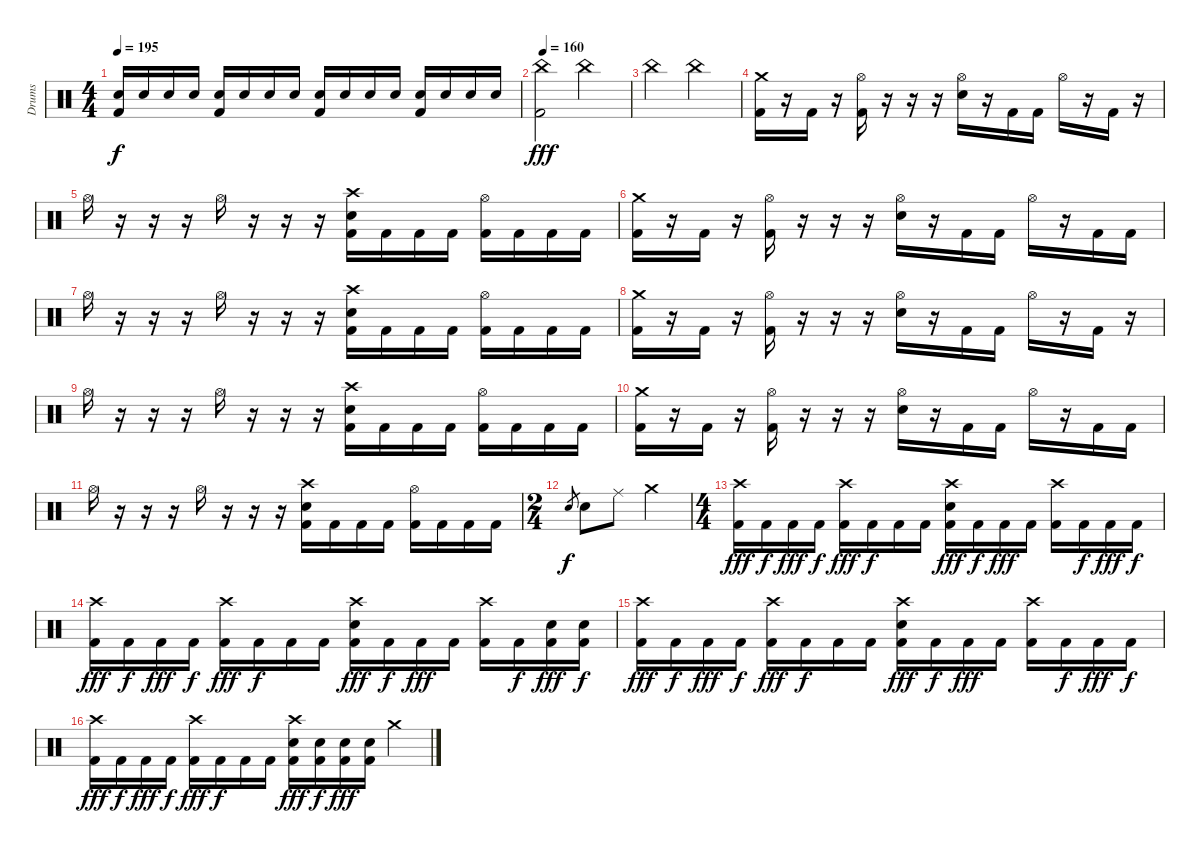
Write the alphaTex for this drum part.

\track ("Drums" "Drums") {instrument percussion}
\staff {score}
\articulation defaults
\ts (4 4)
\tempo 195
\clef neutral
\ks c
("Electric Snare (hit)" "Kick (hit) 2").16{dy f} "Electric Snare (hit)".16 "Electric Snare (hit)".16 "Electric Snare (hit)".16 ("Electric Snare (hit)" "Kick (hit) 2").16 "Electric Snare (hit)".16 "Electric Snare (hit)".16 "Electric Snare (hit)".16 ("Electric Snare (hit)" "Kick (hit) 2").16 "Electric Snare (hit)".16 "Electric Snare (hit)".16 "Electric Snare (hit)".16 ("Electric Snare (hit)" "Kick (hit) 2").16 "Electric Snare (hit)".16 "Electric Snare (hit)".16 "Electric Snare (hit)".16 |
\tempo 160
("China (hit)" "Kick (hit) 2").2{dy fff} "China (hit)".2 |
"China (hit)".2 "China (hit)".2 |
("Crash medium (hit)" "Kick (hit) 2").16 r.16 "Kick (hit) 2".16 r.16 ("Hi-Hat (open)" "Kick (hit) 2").16 r.16 r.16 r.16 ("Hi-Hat (open)" "Electric Snare (hit)").16 r.16 "Kick (hit) 2".16 "Kick (hit) 2".16 "Hi-Hat (open)".16 r.16 "Kick (hit) 2".16 r.16 |
"Hi-Hat (open)".16 r.16 r.16 r.16 "Hi-Hat (open)".16 r.16 r.16 r.16 ("Crash high (hit)" "Electric Snare (hit)" "Kick (hit) 2").16 "Kick (hit) 2".16 "Kick (hit) 2".16 "Kick (hit) 2".16 ("Hi-Hat (open)" "Kick (hit) 2").16 "Kick (hit) 2".16 "Kick (hit) 2".16 "Kick (hit) 2".16 |
("Crash medium (hit)" "Kick (hit) 2").16 r.16 "Kick (hit) 2".16 r.16 ("Hi-Hat (open)" "Kick (hit) 2").16 r.16 r.16 r.16 ("Hi-Hat (open)" "Electric Snare (hit)").16 r.16 "Kick (hit) 2".16 "Kick (hit) 2".16 "Hi-Hat (open)".16 r.16 "Kick (hit) 2".16 "Kick (hit) 2".16 |
"Hi-Hat (open)".16 r.16 r.16 r.16 "Hi-Hat (open)".16 r.16 r.16 r.16 ("Crash high (hit)" "Electric Snare (hit)" "Kick (hit) 2").16 "Kick (hit) 2".16 "Kick (hit) 2".16 "Kick (hit) 2".16 ("Hi-Hat (open)" "Kick (hit) 2").16 "Kick (hit) 2".16 "Kick (hit) 2".16 "Kick (hit) 2".16 |
("Crash medium (hit)" "Kick (hit) 2").16 r.16 "Kick (hit) 2".16 r.16 ("Hi-Hat (open)" "Kick (hit) 2").16 r.16 r.16 r.16 ("Hi-Hat (open)" "Electric Snare (hit)").16 r.16 "Kick (hit) 2".16 "Kick (hit) 2".16 "Hi-Hat (open)".16 r.16 "Kick (hit) 2".16 r.16 |
"Hi-Hat (open)".16 r.16 r.16 r.16 "Hi-Hat (open)".16 r.16 r.16 r.16 ("Crash high (hit)" "Electric Snare (hit)" "Kick (hit) 2").16 "Kick (hit) 2".16 "Kick (hit) 2".16 "Kick (hit) 2".16 ("Hi-Hat (open)" "Kick (hit) 2").16 "Kick (hit) 2".16 "Kick (hit) 2".16 "Kick (hit) 2".16 |
("Crash medium (hit)" "Kick (hit) 2").16 r.16 "Kick (hit) 2".16 r.16 ("Hi-Hat (open)" "Kick (hit) 2").16 r.16 r.16 r.16 ("Hi-Hat (open)" "Electric Snare (hit)").16 r.16 "Kick (hit) 2".16 "Kick (hit) 2".16 "Hi-Hat (open)".16 r.16 "Kick (hit) 2".16 "Kick (hit) 2".16 |
"Hi-Hat (open)".16 r.16 r.16 r.16 "Hi-Hat (open)".16 r.16 r.16 r.16 ("Crash high (hit)" "Electric Snare (hit)" "Kick (hit) 2").16 "Kick (hit) 2".16 "Kick (hit) 2".16 "Kick (hit) 2".16 ("Hi-Hat (open)" "Kick (hit) 2").16 "Kick (hit) 2".16 "Kick (hit) 2".16 "Kick (hit) 2".16 |
\ts (2 4)
"Electric Snare (hit)".8{gr dy f} "Electric Snare (hit)".8 "Ride (middle)".8 "Crash medium (hit)".4 |
\ts (4 4)
("Crash high (hit)" "Kick (hit) 2").16{dy fff} "Kick (hit) 2".16{dy f} "Kick (hit) 2".16{dy fff} "Kick (hit) 2".16{dy f} ("Crash high (hit)" "Kick (hit) 2").16{dy fff} "Kick (hit) 2".16{dy f} "Kick (hit) 2".16 "Kick (hit) 2".16 ("Crash high (hit)" "Electric Snare (hit)" "Kick (hit) 2").16{dy fff} "Kick (hit) 2".16{dy f} "Kick (hit) 2".16{dy fff} "Kick (hit) 2".16 ("Crash high (hit)" "Kick (hit) 2").16 "Kick (hit) 2".16{dy f} "Kick (hit) 2".16{dy fff} "Kick (hit) 2".16{dy f} |
("Crash high (hit)" "Kick (hit) 2").16{dy fff} "Kick (hit) 2".16{dy f} "Kick (hit) 2".16{dy fff} "Kick (hit) 2".16{dy f} ("Crash high (hit)" "Kick (hit) 2").16{dy fff} "Kick (hit) 2".16{dy f} "Kick (hit) 2".16 "Kick (hit) 2".16 ("Crash high (hit)" "Electric Snare (hit)" "Kick (hit) 2").16{dy fff} "Kick (hit) 2".16{dy f} "Kick (hit) 2".16{dy fff} "Kick (hit) 2".16 ("Crash high (hit)" "Kick (hit) 2").16 "Kick (hit) 2".16{dy f} ("Electric Snare (hit)" "Kick (hit) 2").16{dy fff} ("Electric Snare (hit)" "Kick (hit) 2").16{dy f} |
("Crash high (hit)" "Kick (hit) 2").16{dy fff} "Kick (hit) 2".16{dy f} "Kick (hit) 2".16{dy fff} "Kick (hit) 2".16{dy f} ("Crash high (hit)" "Kick (hit) 2").16{dy fff} "Kick (hit) 2".16{dy f} "Kick (hit) 2".16 "Kick (hit) 2".16 ("Crash high (hit)" "Electric Snare (hit)" "Kick (hit) 2").16{dy fff} "Kick (hit) 2".16{dy f} "Kick (hit) 2".16{dy fff} "Kick (hit) 2".16 ("Crash high (hit)" "Kick (hit) 2").16 "Kick (hit) 2".16{dy f} "Kick (hit) 2".16{dy fff} "Kick (hit) 2".16{dy f} |
("Crash high (hit)" "Kick (hit) 2").16{dy fff} "Kick (hit) 2".16{dy f} "Kick (hit) 2".16{dy fff} "Kick (hit) 2".16{dy f} ("Crash high (hit)" "Kick (hit) 2").16{dy fff} "Kick (hit) 2".16{dy f} "Kick (hit) 2".16 "Kick (hit) 2".16 ("Crash high (hit)" "Electric Snare (hit)" "Kick (hit) 2").16{dy fff} ("Electric Snare (hit)" "Kick (hit) 2").16{dy f} ("Electric Snare (hit)" "Kick (hit) 2").16{dy fff} ("Electric Snare (hit)" "Kick (hit) 2").16 "Crash medium (hit)".4
